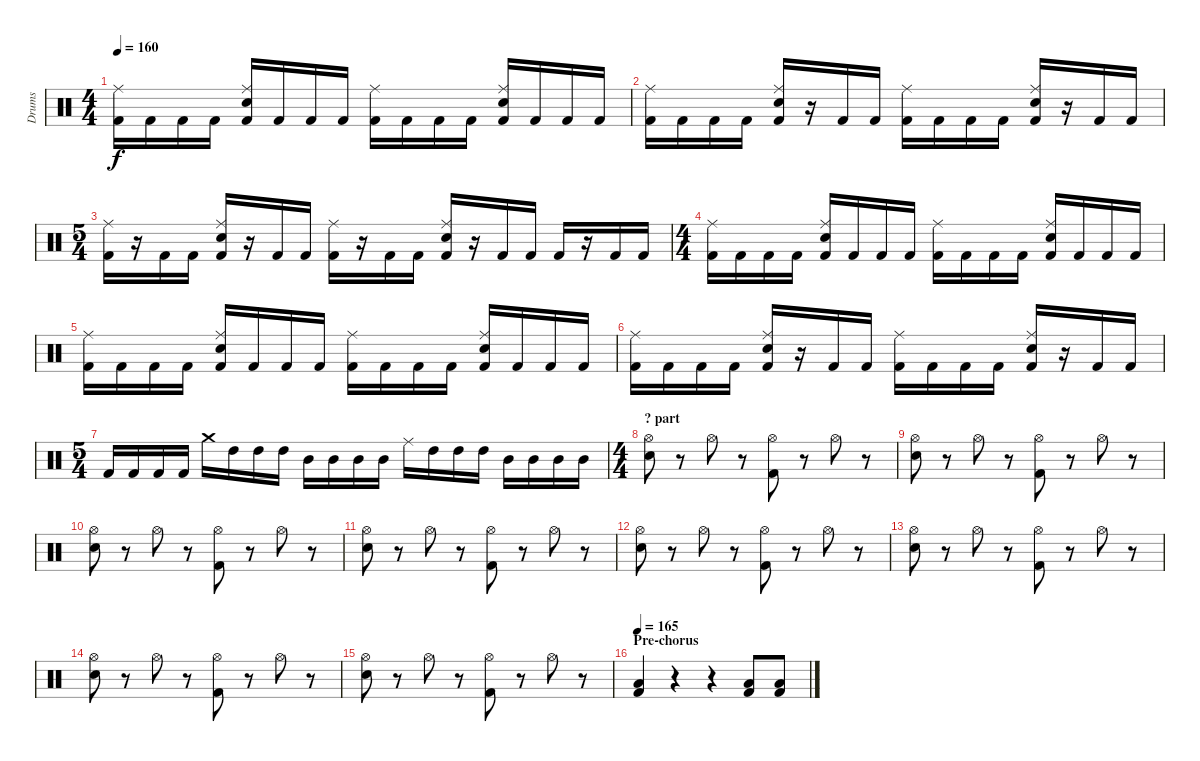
\track ("Drums" "Drums") {instrument percussion}
\staff {score}
\articulation defaults
\ts (4 4)
\tempo 160
\clef neutral
\ks c
("Kick (hit) 2" "Ride (middle)").16{dy f} "Kick (hit) 2".16 "Kick (hit) 2".16 "Kick (hit) 2".16 ("Kick (hit) 2" "Electric Snare (hit)" "Ride (middle)").16 "Kick (hit) 2".16 "Kick (hit) 2".16 "Kick (hit) 2".16 ("Kick (hit) 2" "Ride (middle)").16 "Kick (hit) 2".16 "Kick (hit) 2".16 "Kick (hit) 2".16 ("Kick (hit) 2" "Electric Snare (hit)" "Ride (middle)").16 "Kick (hit) 2".16 "Kick (hit) 2".16 "Kick (hit) 2".16 |
("Kick (hit) 2" "Ride (middle)").16 "Kick (hit) 2".16 "Kick (hit) 2".16 "Kick (hit) 2".16 ("Kick (hit) 2" "Electric Snare (hit)" "Ride (middle)").16 r.16 "Kick (hit) 2".16 "Kick (hit) 2".16 ("Kick (hit) 2" "Ride (middle)").16 "Kick (hit) 2".16 "Kick (hit) 2".16 "Kick (hit) 2".16 ("Kick (hit) 2" "Electric Snare (hit)" "Ride (middle)").16 r.16 "Kick (hit) 2".16 "Kick (hit) 2".16 |
\ts (5 4)
("Kick (hit) 2" "Ride (middle)").16 r.16 "Kick (hit) 2".16 "Kick (hit) 2".16 ("Kick (hit) 2" "Electric Snare (hit)" "Ride (middle)").16 r.16 "Kick (hit) 2".16 "Kick (hit) 2".16 ("Kick (hit) 2" "Ride (middle)").16 r.16 "Kick (hit) 2".16 "Kick (hit) 2".16 ("Kick (hit) 2" "Electric Snare (hit)" "Ride (middle)").16 r.16 "Kick (hit) 2".16 "Kick (hit) 2".16 "Kick (hit) 2".16 r.16 "Kick (hit) 2".16 "Kick (hit) 2".16 |
\ts (4 4)
("Kick (hit) 2" "Ride (middle)").16 "Kick (hit) 2".16 "Kick (hit) 2".16 "Kick (hit) 2".16 ("Kick (hit) 2" "Electric Snare (hit)" "Ride (middle)").16 "Kick (hit) 2".16 "Kick (hit) 2".16 "Kick (hit) 2".16 ("Kick (hit) 2" "Ride (middle)").16 "Kick (hit) 2".16 "Kick (hit) 2".16 "Kick (hit) 2".16 ("Kick (hit) 2" "Electric Snare (hit)" "Ride (middle)").16 "Kick (hit) 2".16 "Kick (hit) 2".16 "Kick (hit) 2".16 |
("Kick (hit) 2" "Ride (middle)").16 "Kick (hit) 2".16 "Kick (hit) 2".16 "Kick (hit) 2".16 ("Kick (hit) 2" "Electric Snare (hit)" "Ride (middle)").16 "Kick (hit) 2".16 "Kick (hit) 2".16 "Kick (hit) 2".16 ("Kick (hit) 2" "Ride (middle)").16 "Kick (hit) 2".16 "Kick (hit) 2".16 "Kick (hit) 2".16 ("Kick (hit) 2" "Electric Snare (hit)" "Ride (middle)").16 "Kick (hit) 2".16 "Kick (hit) 2".16 "Kick (hit) 2".16 |
("Kick (hit) 2" "Ride (middle)").16 "Kick (hit) 2".16 "Kick (hit) 2".16 "Kick (hit) 2".16 ("Kick (hit) 2" "Electric Snare (hit)" "Ride (middle)").16 r.16 "Kick (hit) 2".16 "Kick (hit) 2".16 ("Kick (hit) 2" "Ride (middle)").16 "Kick (hit) 2".16 "Kick (hit) 2".16 "Kick (hit) 2".16 ("Kick (hit) 2" "Electric Snare (hit)" "Ride (middle)").16 r.16 "Kick (hit) 2".16 "Kick (hit) 2".16 |
\ts (5 4)
"Kick (hit) 2".16 "Kick (hit) 2".16 "Kick (hit) 2".16 "Kick (hit) 2".16 "Crash medium (hit)".16 "High Tom (hit)".16 "High Tom (hit)".16 "High Tom (hit)".16 "Mid Tom (hit)".16 "Mid Tom (hit)".16 "Mid Tom (hit)".16 "Mid Tom (hit)".16 "Ride (middle)".16 "High Tom (hit)".16 "High Tom (hit)".16 "High Tom (hit)".16 "Mid Tom (hit)".16 "Mid Tom (hit)".16 "Mid Tom (hit)".16 "Mid Tom (hit)".16 |
\ts (4 4)
\section ("" "? part")
("Electric Snare (hit)" "Hi-Hat (open)").8 r.8 "Hi-Hat (open)".8 r.8 ("Kick (hit) 2" "Hi-Hat (open)").8 r.8 "Hi-Hat (open)".8 r.8 |
("Electric Snare (hit)" "Hi-Hat (open)").8 r.8 "Hi-Hat (open)".8 r.8 ("Kick (hit) 2" "Hi-Hat (open)").8 r.8 "Hi-Hat (open)".8 r.8 |
("Electric Snare (hit)" "Hi-Hat (open)").8 r.8 "Hi-Hat (open)".8 r.8 ("Kick (hit) 2" "Hi-Hat (open)").8 r.8 "Hi-Hat (open)".8 r.8 |
("Electric Snare (hit)" "Hi-Hat (open)").8 r.8 "Hi-Hat (open)".8 r.8 ("Kick (hit) 2" "Hi-Hat (open)").8 r.8 "Hi-Hat (open)".8 r.8 |
("Electric Snare (hit)" "Hi-Hat (open)").8 r.8 "Hi-Hat (open)".8 r.8 ("Kick (hit) 2" "Hi-Hat (open)").8 r.8 "Hi-Hat (open)".8 r.8 |
("Electric Snare (hit)" "Hi-Hat (open)").8 r.8 "Hi-Hat (open)".8 r.8 ("Kick (hit) 2" "Hi-Hat (open)").8 r.8 "Hi-Hat (open)".8 r.8 |
("Electric Snare (hit)" "Hi-Hat (open)").8 r.8 "Hi-Hat (open)".8 r.8 ("Kick (hit) 2" "Hi-Hat (open)").8 r.8 "Hi-Hat (open)".8 r.8 |
("Electric Snare (hit)" "Hi-Hat (open)").8 r.8 "Hi-Hat (open)".8 r.8 ("Kick (hit) 2" "Hi-Hat (open)").8 r.8 "Hi-Hat (open)".8 r.8 |
\section ("" "Pre-chorus")
\tempo 165
("Kick (hit) 2" "Low Tom (hit)").4 r.4 r.4 ("Kick (hit) 2" "Low Tom (hit)").8 ("Kick (hit) 2" "Low Tom (hit)").8
